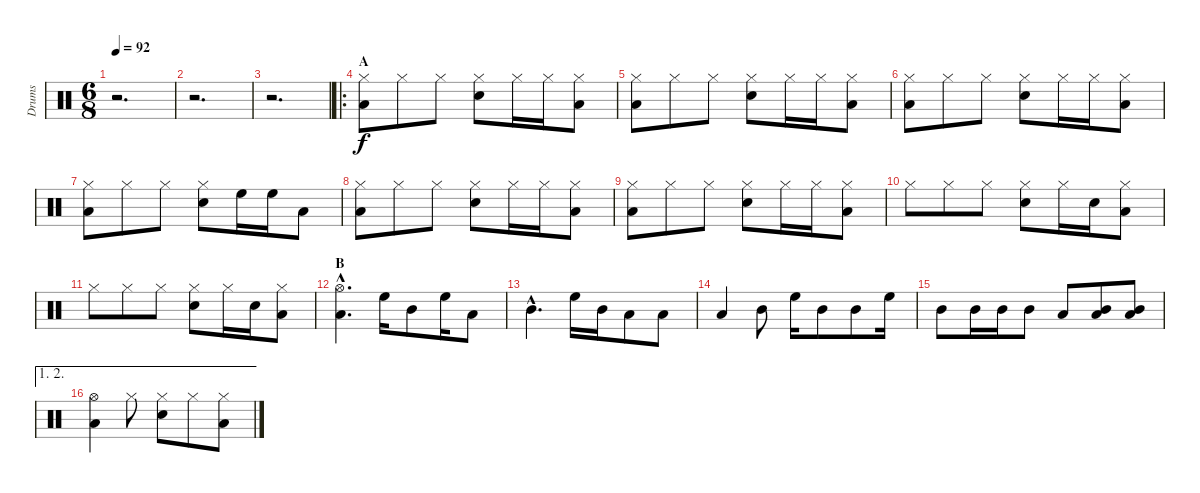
\track ("Drums" "Drums") {instrument percussion}
\staff {score}
\articulation defaults
\ts (6 8)
\tempo 92
\clef neutral
\ks c
r.2{d dy f} |
r.2{d} |
r.2{d} |
\ro
\section ("" "A")
("Hi-Hat (closed)" "Low Floor Tom (hit)").8 "Hi-Hat (closed)".8 "Hi-Hat (closed)".8 ("Hi-Hat (closed)" "Snare (hit) 2").8 "Hi-Hat (closed)".16 "Hi-Hat (closed)".16 ("Hi-Hat (closed)" "Low Floor Tom (hit)").8 |
("Hi-Hat (closed)" "Low Floor Tom (hit)").8 "Hi-Hat (closed)".8 "Hi-Hat (closed)".8 ("Hi-Hat (closed)" "Snare (hit) 2").8 "Hi-Hat (closed)".16 "Hi-Hat (closed)".16 ("Hi-Hat (closed)" "Low Floor Tom (hit)").8 |
("Hi-Hat (closed)" "Low Floor Tom (hit)").8 "Hi-Hat (closed)".8 "Hi-Hat (closed)".8 ("Hi-Hat (closed)" "Snare (hit) 2").8 "Hi-Hat (closed)".16 "Hi-Hat (closed)".16 ("Hi-Hat (closed)" "Low Floor Tom (hit)").8 |
("Hi-Hat (closed)" "Low Floor Tom (hit)").8 "Hi-Hat (closed)".8 "Hi-Hat (closed)".8 ("Hi-Hat (closed)" "Snare (hit) 2").8 "High Floor Tom (hit)".16 "High Floor Tom (hit)".16 "Low Tom (hit)".8 |
("Hi-Hat (closed)" "Low Floor Tom (hit)").8 "Hi-Hat (closed)".8 "Hi-Hat (closed)".8 ("Hi-Hat (closed)" "Snare (hit) 2").8 "Hi-Hat (closed)".16 "Hi-Hat (closed)".16 ("Hi-Hat (closed)" "Low Floor Tom (hit)").8 |
("Hi-Hat (closed)" "Low Floor Tom (hit)").8 "Hi-Hat (closed)".8 "Hi-Hat (closed)".8 ("Hi-Hat (closed)" "Snare (hit) 2").8 "Hi-Hat (closed)".16 "Hi-Hat (closed)".16 ("Hi-Hat (closed)" "Low Floor Tom (hit)").8 |
"Hi-Hat (closed)".8 "Hi-Hat (closed)".8 "Hi-Hat (closed)".8 ("Hi-Hat (closed)" "Snare (hit) 2").8 "Hi-Hat (closed)".16 "Snare (hit) 2".16 ("Hi-Hat (closed)" "Low Floor Tom (hit)").8 |
"Hi-Hat (closed)".8 "Hi-Hat (closed)".8 "Hi-Hat (closed)".8 ("Hi-Hat (closed)" "Snare (hit) 2").8 "Hi-Hat (closed)".16 "Snare (hit) 2".16 ("Hi-Hat (closed)" "Low Floor Tom (hit)").8 |
\section ("" "B")
("Hi-Hat (open)"{hac} "Low Floor Tom (hit)"{hac}).4{d} "High Floor Tom (hit)".16 "Mid Tom (hit)".8 "High Floor Tom (hit)".16 "Low Tom (hit)".8 |
"Mid Tom (hit)"{hac}.4{d} "High Floor Tom (hit)".16 "Mid Tom (hit)".16 "Low Tom (hit)".8 "Low Tom (hit)".8 |
"Low Tom (hit)".4 "Mid Tom (hit)".8 "High Floor Tom (hit)".16 "Mid Tom (hit)".8 "Mid Tom (hit)".8 "High Floor Tom (hit)".16 |
"Mid Tom (hit)".8 "Mid Tom (hit)".16 "Mid Tom (hit)".16 "Mid Tom (hit)".8 "Low Tom (hit)".8 ("Low Tom (hit)" "Mid Tom (hit)").8 ("Low Tom (hit)" "Mid Tom (hit)").8 |
\ae (1 2)
("Hi-Hat (open)" "Low Floor Tom (hit)").4{volume 15} "Hi-Hat (closed)".8 ("Hi-Hat (closed)" "Snare (hit) 2").8 "Hi-Hat (closed)".8 ("Hi-Hat (closed)" "Low Floor Tom (hit)").8
